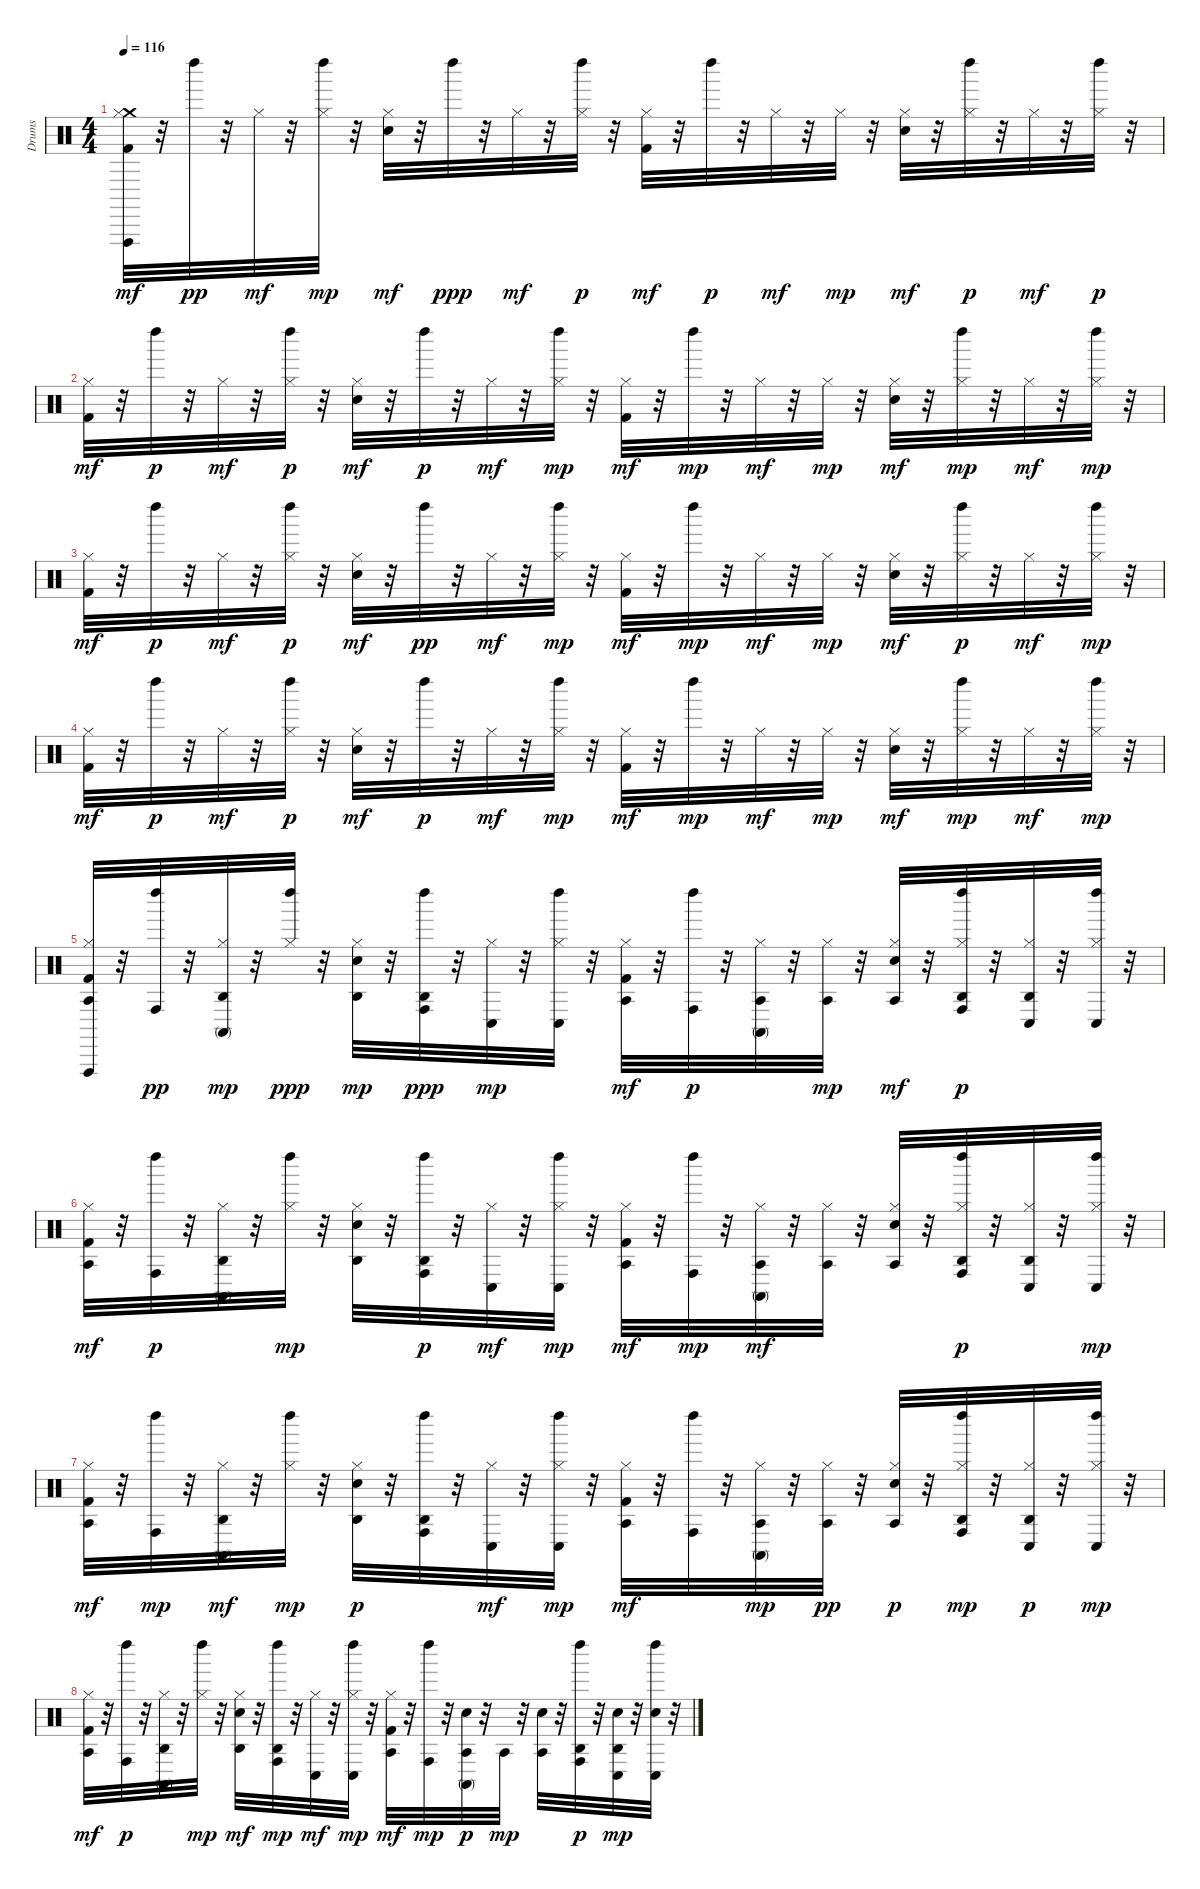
\track ("Drums" "Drums") {instrument percussion}
\staff {score}
\articulation defaults
\ts (4 4)
\tempo 116
\clef neutral
\ks c
("Crash medium (hit)" "Vibraslap (hit)" "Kick (hit) 2" "Hi-Hat (closed)").32{dy mf} r.32 "Left Maraca (hit)".32{dy pp} r.32 "Hi-Hat (closed)".32{dy mf} r.32 ("Left Maraca (hit)" "Hi-Hat (closed)").32{dy mp} r.32 ("Hi-Hat (closed)" "Snare (hit) 2").32{dy mf} r.32 "Left Maraca (hit)".32{dy ppp} r.32 "Hi-Hat (closed)".32{dy mf} r.32 ("Hi-Hat (closed)" "Left Maraca (hit)").32{dy p} r.32 ("Hi-Hat (closed)" "Kick (hit) 2").32{dy mf} r.32 "Left Maraca (hit)".32{dy p} r.32 "Hi-Hat (closed)".32{dy mf} r.32 "Hi-Hat (closed)".32{dy mp} r.32 ("Snare (hit) 2" "Hi-Hat (closed)").32{dy mf} r.32 ("Hi-Hat (closed)" "Left Maraca (hit)").32{dy p} r.32 "Hi-Hat (closed)".32{dy mf} r.32 ("Hi-Hat (closed)" "Left Maraca (hit)").32{dy p} r.32 |
("Kick (hit) 2" "Hi-Hat (closed)").32{dy mf} r.32 "Left Maraca (hit)".32{dy p} r.32 "Hi-Hat (closed)".32{dy mf} r.32 ("Hi-Hat (closed)" "Left Maraca (hit)").32{dy p} r.32 ("Snare (hit) 2" "Hi-Hat (closed)").32{dy mf} r.32 "Left Maraca (hit)".32{dy p} r.32 "Hi-Hat (closed)".32{dy mf} r.32 ("Hi-Hat (closed)" "Left Maraca (hit)").32{dy mp} r.32 ("Kick (hit) 2" "Hi-Hat (closed)").32{dy mf} r.32 "Left Maraca (hit)".32{dy mp} r.32 "Hi-Hat (closed)".32{dy mf} r.32 "Hi-Hat (closed)".32{dy mp} r.32 ("Hi-Hat (closed)" "Snare (hit) 2").32{dy mf} r.32 ("Left Maraca (hit)" "Hi-Hat (closed)").32{dy mp} r.32 "Hi-Hat (closed)".32{dy mf} r.32 ("Left Maraca (hit)" "Hi-Hat (closed)").32{dy mp} r.32 |
("Kick (hit) 2" "Hi-Hat (closed)").32{dy mf} r.32 "Left Maraca (hit)".32{dy p} r.32 "Hi-Hat (closed)".32{dy mf} r.32 ("Hi-Hat (closed)" "Left Maraca (hit)").32{dy p} r.32 ("Snare (hit) 2" "Hi-Hat (closed)").32{dy mf} r.32 "Left Maraca (hit)".32{dy pp} r.32 "Hi-Hat (closed)".32{dy mf} r.32 ("Hi-Hat (closed)" "Left Maraca (hit)").32{dy mp} r.32 ("Kick (hit) 2" "Hi-Hat (closed)").32{dy mf} r.32 "Left Maraca (hit)".32{dy mp} r.32 "Hi-Hat (closed)".32{dy mf} r.32 "Hi-Hat (closed)".32{dy mp} r.32 ("Snare (hit) 2" "Hi-Hat (closed)").32{dy mf} r.32 ("Hi-Hat (closed)" "Left Maraca (hit)").32{dy p} r.32 "Hi-Hat (closed)".32{dy mf} r.32 ("Left Maraca (hit)" "Hi-Hat (closed)").32{dy mp} r.32 |
("Kick (hit) 2" "Hi-Hat (closed)").32{dy mf} r.32 "Left Maraca (hit)".32{dy p} r.32 "Hi-Hat (closed)".32{dy mf} r.32 ("Hi-Hat (closed)" "Left Maraca (hit)").32{dy p} r.32 ("Snare (hit) 2" "Hi-Hat (closed)").32{dy mf} r.32 "Left Maraca (hit)".32{dy p} r.32 "Hi-Hat (closed)".32{dy mf} r.32 ("Left Maraca (hit)" "Hi-Hat (closed)").32{dy mp} r.32 ("Kick (hit) 2" "Hi-Hat (closed)").32{dy mf} r.32 "Left Maraca (hit)".32{dy mp} r.32 "Hi-Hat (closed)".32{dy mf} r.32 "Hi-Hat (closed)".32{dy mp} r.32 ("Snare (hit) 2" "Hi-Hat (closed)").32{dy mf} r.32 ("Left Maraca (hit)" "Hi-Hat (closed)").32{dy mp} r.32 "Hi-Hat (closed)".32{dy mf} r.32 ("Hi-Hat (closed)" "Left Maraca (hit)").32{dy mp} r.32 |
("Kick (hit) 2" "Vibraslap (hit)" "Hi-Hat (closed)" "Agogo tow (hit)").32 r.32 ("Conga high (hit)" "Left Maraca (hit)").32{dy pp} r.32 ("Conga high (mute)" "Hi-Hat (closed)" "Agogo high (hit)").32{dy mp} r.32 ("Hi-Hat (closed)" "Left Maraca (hit)").32{dy ppp} r.32 ("Snare (hit) 2" "Hi-Hat (closed)" "Agogo high (hit)").32{dy mp} r.32 ("Agogo high (hit)" "Conga high (hit)" "Left Maraca (hit)").32{dy ppp} r.32 ("Hi-Hat (closed)" "Conga low (hit)").32{dy mp} r.32 ("Hi-Hat (closed)" "Left Maraca (hit)" "Conga low (hit)").32 r.32 ("Hi-Hat (closed)" "Kick (hit) 2" "Agogo tow (hit)").32{dy mf} r.32 ("Conga high (hit)" "Left Maraca (hit)").32{dy p} r.32 ("Hi-Hat (closed)" "Agogo tow (hit)" "Conga high (mute)").32 r.32 ("Agogo tow (hit)" "Hi-Hat (closed)").32{dy mp} r.32 ("Agogo tow (hit)" "Hi-Hat (closed)" "Snare (hit) 2").32{dy mf} r.32 ("Hi-Hat (closed)" "Conga high (hit)" "Agogo high (hit)" "Left Maraca (hit)").32{dy p} r.32 ("Hi-Hat (closed)" "Conga low (hit)" "Agogo high (hit)").32 r.32 ("Hi-Hat (closed)" "Left Maraca (hit)" "Conga low (hit)").32 r.32 |
("Agogo tow (hit)" "Hi-Hat (closed)" "Kick (hit) 2").32{dy mf} r.32 ("Conga high (hit)" "Left Maraca (hit)").32{dy p} r.32 ("Hi-Hat (closed)" "Agogo high (hit)" "Conga high (mute)").32 r.32 ("Left Maraca (hit)" "Hi-Hat (closed)").32{dy mp} r.32 ("Hi-Hat (closed)" "Snare (hit) 2" "Agogo high (hit)").32 r.32 ("Conga high (hit)" "Left Maraca (hit)" "Agogo high (hit)").32{dy p} r.32 ("Conga low (hit)" "Hi-Hat (closed)").32{dy mf} r.32 ("Conga low (hit)" "Left Maraca (hit)" "Hi-Hat (closed)").32{dy mp} r.32 ("Kick (hit) 2" "Agogo tow (hit)" "Hi-Hat (closed)").32{dy mf} r.32 ("Left Maraca (hit)" "Conga high (hit)").32{dy mp} r.32 ("Agogo tow (hit)" "Conga high (mute)" "Hi-Hat (closed)").32{dy mf} r.32 ("Hi-Hat (closed)" "Agogo tow (hit)").32 r.32 ("Snare (hit) 2" "Hi-Hat (closed)" "Agogo tow (hit)").32 r.32 ("Conga high (hit)" "Agogo high (hit)" "Hi-Hat (closed)" "Left Maraca (hit)").32{dy p} r.32 ("Conga low (hit)" "Hi-Hat (closed)" "Agogo high (hit)").32 r.32 ("Conga low (hit)" "Hi-Hat (closed)" "Left Maraca (hit)").32{dy mp} r.32 |
("Kick (hit) 2" "Hi-Hat (closed)" "Agogo tow (hit)").32{dy mf} r.32 ("Left Maraca (hit)" "Conga high (hit)").32{dy mp} r.32 ("Hi-Hat (closed)" "Conga high (mute)" "Agogo high (hit)").32{dy mf} r.32 ("Left Maraca (hit)" "Hi-Hat (closed)").32{dy mp} r.32 ("Hi-Hat (closed)" "Snare (hit) 2" "Agogo high (hit)").32{dy p} r.32 ("Conga high (hit)" "Left Maraca (hit)" "Agogo high (hit)").32 r.32 ("Conga low (hit)" "Hi-Hat (closed)").32{dy mf} r.32 ("Conga low (hit)" "Hi-Hat (closed)" "Left Maraca (hit)").32{dy mp} r.32 ("Kick (hit) 2" "Agogo tow (hit)" "Hi-Hat (closed)").32{dy mf} r.32 ("Left Maraca (hit)" "Conga high (hit)").32 r.32 ("Hi-Hat (closed)" "Conga high (mute)" "Agogo tow (hit)").32{dy mp} r.32 ("Hi-Hat (closed)" "Agogo tow (hit)").32{dy pp} r.32 ("Hi-Hat (closed)" "Snare (hit) 2" "Agogo tow (hit)").32{dy p} r.32 ("Agogo high (hit)" "Left Maraca (hit)" "Conga high (hit)" "Hi-Hat (closed)").32{dy mp} r.32 ("Hi-Hat (closed)" "Conga low (hit)" "Agogo high (hit)").32{dy p} r.32 ("Conga low (hit)" "Left Maraca (hit)" "Hi-Hat (closed)").32{dy mp} r.32 |
("Hi-Hat (closed)" "Agogo tow (hit)" "Kick (hit) 2").32{dy mf} r.32 ("Conga high (hit)" "Left Maraca (hit)").32{dy p} r.32 ("Agogo high (hit)" "Hi-Hat (closed)" "Conga high (mute)").32 r.32 ("Left Maraca (hit)" "Hi-Hat (closed)").32{dy mp} r.32 ("Hi-Hat (closed)" "Snare (hit) 2" "Agogo high (hit)").32{dy mf} r.32 ("Left Maraca (hit)" "Conga high (hit)" "Agogo high (hit)").32{dy mp} r.32 ("Conga low (hit)" "Hi-Hat (closed)").32{dy mf} r.32 ("Left Maraca (hit)" "Conga low (hit)" "Hi-Hat (closed)").32{dy mp} r.32 ("Kick (hit) 2" "Agogo tow (hit)" "Hi-Hat (closed)").32{dy mf} r.32 ("Conga high (hit)" "Left Maraca (hit)").32{dy mp} r.32 ("Snare (hit) 2" "Agogo tow (hit)" "Conga high (mute)").32{dy p} r.32 "Agogo tow (hit)".32{dy mp} r.32 ("Snare (hit) 2" "Agogo tow (hit)").32 r.32 ("Conga high (hit)" "Agogo high (hit)" "Left Maraca (hit)").32{dy p} r.32 ("Agogo high (hit)" "Conga low (hit)" "Snare (hit) 2").32{dy mp} r.32 ("Snare (hit) 2" "Left Maraca (hit)" "Conga low (hit)").32 r.32
